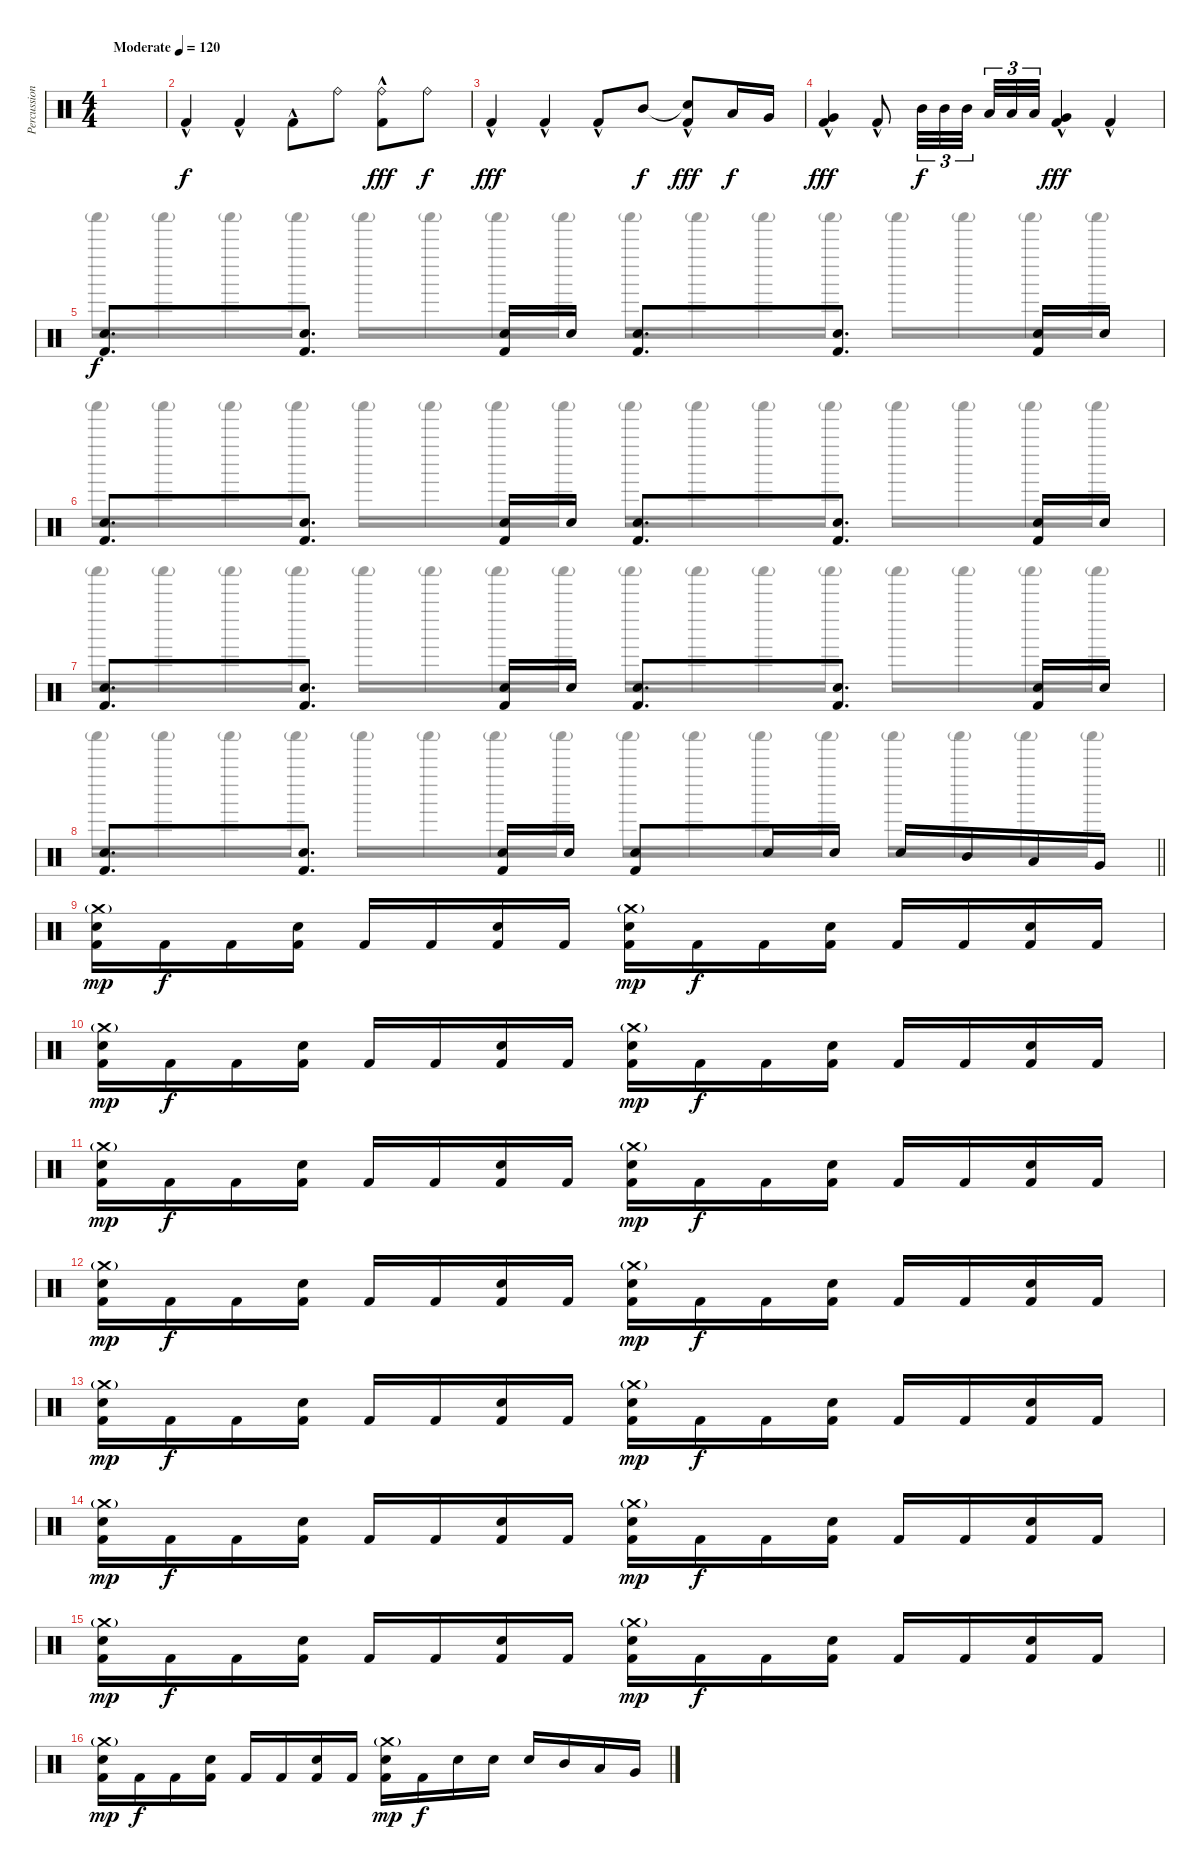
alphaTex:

\track ("Percussion" "Percussion") {instrument percussion}
\staff {score}
\articulation defaults
\voice
\ts (4 4)
\section ("" "")
\tempo (120 "Moderate")
\clef neutral
\ks c
|
"Kick (hit) 2"{hac}.4 "Kick (hit) 2"{hac}.4 "Kick (hit) 2"{hac}.8 "Ride (bell)".8{dy f} ("Ride (bell)" "Kick (hit) 2"{hac}).8{dy fff} "Ride (bell)".8{dy f} |
"Kick (hit) 2"{hac}.4{dy fff} "Kick (hit) 2"{hac}.4 "Kick (hit) 2"{hac}.8 "Mid Tom (hit)".8{dy f} ("Snare (hit)"{t} "Kick (hit) 2"{hac}).8{dy fff} "Low Tom (hit)".16{dy f} "Very Low Tom (hit)".16 |
("Very Low Tom (hit)"{hac} "Kick (hit) 2"{hac}).4{dy fff} "Kick (hit) 2"{hac}.8 "Mid Tom (hit)".32{tu (3 2) dy f} "Mid Tom (hit)".32{tu (3 2)} "Mid Tom (hit)".32{tu (3 2) beam splitsecondary} "Low Tom (hit)".32{tu (3 2)} "Low Tom (hit)".32{tu (3 2)} "Low Tom (hit)".32{tu (3 2)} ("Very Low Tom (hit)" "Kick (hit) 2"{hac}).4{dy fff} "Kick (hit) 2"{hac}.4 |
("Snare (hit) 2" "Kick (hit) 2").8{d dy f} ("Snare (hit) 2" "Kick (hit) 2").8{d} ("Snare (hit) 2" "Kick (hit) 2").16 "Snare (hit) 2".16 ("Snare (hit) 2" "Kick (hit) 2").8{d} ("Snare (hit) 2" "Kick (hit) 2").8{d} ("Snare (hit) 2" "Kick (hit) 2").16 "Snare (hit) 2".16 |
("Snare (hit) 2" "Kick (hit) 2").8{d} ("Snare (hit) 2" "Kick (hit) 2").8{d} ("Snare (hit) 2" "Kick (hit) 2").16 "Snare (hit) 2".16 ("Snare (hit) 2" "Kick (hit) 2").8{d} ("Snare (hit) 2" "Kick (hit) 2").8{d} ("Snare (hit) 2" "Kick (hit) 2").16 "Snare (hit) 2".16 |
("Snare (hit) 2" "Kick (hit) 2").8{d} ("Snare (hit) 2" "Kick (hit) 2").8{d} ("Snare (hit) 2" "Kick (hit) 2").16 "Snare (hit) 2".16 ("Snare (hit) 2" "Kick (hit) 2").8{d} ("Snare (hit) 2" "Kick (hit) 2").8{d} ("Snare (hit) 2" "Kick (hit) 2").16 "Snare (hit) 2".16 |
\barLineRight lightlight
("Snare (hit) 2" "Kick (hit) 2").8{d} ("Snare (hit) 2" "Kick (hit) 2").8{d} ("Snare (hit) 2" "Kick (hit) 2").16 "Snare (hit) 2".16 ("Snare (hit) 2" "Kick (hit) 2").8 "Snare (hit) 2".16 "Snare (hit) 2".16 "Snare (hit) 2".16 "Mid Tom (hit)".16 "Low Tom (hit)".16 "Very Low Tom (hit)".16 |
\section ("" "")
("Crash medium (hit)"{g} "Snare (hit) 2" "Kick (hit) 2").16{dy mp} "Kick (hit) 2".16{dy f} "Kick (hit) 2".16 ("Snare (hit) 2" "Kick (hit) 2").16 "Kick (hit) 2".16 "Kick (hit) 2".16 ("Snare (hit) 2" "Kick (hit) 2").16 "Kick (hit) 2".16 ("Crash medium (hit)"{g} "Snare (hit) 2" "Kick (hit) 2").16{dy mp} "Kick (hit) 2".16{dy f} "Kick (hit) 2".16 ("Snare (hit) 2" "Kick (hit) 2").16 "Kick (hit) 2".16 "Kick (hit) 2".16 ("Snare (hit) 2" "Kick (hit) 2").16 "Kick (hit) 2".16 |
("Crash medium (hit)"{g} "Snare (hit) 2" "Kick (hit) 2").16{dy mp} "Kick (hit) 2".16{dy f} "Kick (hit) 2".16 ("Snare (hit) 2" "Kick (hit) 2").16 "Kick (hit) 2".16 "Kick (hit) 2".16 ("Snare (hit) 2" "Kick (hit) 2").16 "Kick (hit) 2".16 ("Crash medium (hit)"{g} "Snare (hit) 2" "Kick (hit) 2").16{dy mp} "Kick (hit) 2".16{dy f} "Kick (hit) 2".16 ("Snare (hit) 2" "Kick (hit) 2").16 "Kick (hit) 2".16 "Kick (hit) 2".16 ("Snare (hit) 2" "Kick (hit) 2").16 "Kick (hit) 2".16 |
("Crash medium (hit)"{g} "Snare (hit) 2" "Kick (hit) 2").16{dy mp} "Kick (hit) 2".16{dy f} "Kick (hit) 2".16 ("Snare (hit) 2" "Kick (hit) 2").16 "Kick (hit) 2".16 "Kick (hit) 2".16 ("Snare (hit) 2" "Kick (hit) 2").16 "Kick (hit) 2".16 ("Crash medium (hit)"{g} "Snare (hit) 2" "Kick (hit) 2").16{dy mp} "Kick (hit) 2".16{dy f} "Kick (hit) 2".16 ("Snare (hit) 2" "Kick (hit) 2").16 "Kick (hit) 2".16 "Kick (hit) 2".16 ("Snare (hit) 2" "Kick (hit) 2").16 "Kick (hit) 2".16 |
("Crash medium (hit)"{g} "Snare (hit) 2" "Kick (hit) 2").16{dy mp} "Kick (hit) 2".16{dy f} "Kick (hit) 2".16 ("Snare (hit) 2" "Kick (hit) 2").16 "Kick (hit) 2".16 "Kick (hit) 2".16 ("Snare (hit) 2" "Kick (hit) 2").16 "Kick (hit) 2".16 ("Crash medium (hit)"{g} "Snare (hit) 2" "Kick (hit) 2").16{dy mp} "Kick (hit) 2".16{dy f} "Kick (hit) 2".16 ("Snare (hit) 2" "Kick (hit) 2").16 "Kick (hit) 2".16 "Kick (hit) 2".16 ("Snare (hit) 2" "Kick (hit) 2").16 "Kick (hit) 2".16 |
("Crash medium (hit)"{g} "Snare (hit) 2" "Kick (hit) 2").16{dy mp} "Kick (hit) 2".16{dy f} "Kick (hit) 2".16 ("Snare (hit) 2" "Kick (hit) 2").16 "Kick (hit) 2".16 "Kick (hit) 2".16 ("Snare (hit) 2" "Kick (hit) 2").16 "Kick (hit) 2".16 ("Crash medium (hit)"{g} "Snare (hit) 2" "Kick (hit) 2").16{dy mp} "Kick (hit) 2".16{dy f} "Kick (hit) 2".16 ("Snare (hit) 2" "Kick (hit) 2").16 "Kick (hit) 2".16 "Kick (hit) 2".16 ("Snare (hit) 2" "Kick (hit) 2").16 "Kick (hit) 2".16 |
("Crash medium (hit)"{g} "Snare (hit) 2" "Kick (hit) 2").16{dy mp} "Kick (hit) 2".16{dy f} "Kick (hit) 2".16 ("Snare (hit) 2" "Kick (hit) 2").16 "Kick (hit) 2".16 "Kick (hit) 2".16 ("Snare (hit) 2" "Kick (hit) 2").16 "Kick (hit) 2".16 ("Crash medium (hit)"{g} "Snare (hit) 2" "Kick (hit) 2").16{dy mp} "Kick (hit) 2".16{dy f} "Kick (hit) 2".16 ("Snare (hit) 2" "Kick (hit) 2").16 "Kick (hit) 2".16 "Kick (hit) 2".16 ("Snare (hit) 2" "Kick (hit) 2").16 "Kick (hit) 2".16 |
("Crash medium (hit)"{g} "Snare (hit) 2" "Kick (hit) 2").16{dy mp} "Kick (hit) 2".16{dy f} "Kick (hit) 2".16 ("Snare (hit) 2" "Kick (hit) 2").16 "Kick (hit) 2".16 "Kick (hit) 2".16 ("Snare (hit) 2" "Kick (hit) 2").16 "Kick (hit) 2".16 ("Crash medium (hit)"{g} "Snare (hit) 2" "Kick (hit) 2").16{dy mp} "Kick (hit) 2".16{dy f} "Kick (hit) 2".16 ("Snare (hit) 2" "Kick (hit) 2").16 "Kick (hit) 2".16 "Kick (hit) 2".16 ("Snare (hit) 2" "Kick (hit) 2").16 "Kick (hit) 2".16 |
("Crash medium (hit)"{g} "Snare (hit) 2" "Kick (hit) 2").16{dy mp} "Kick (hit) 2".16{dy f} "Kick (hit) 2".16 ("Snare (hit) 2" "Kick (hit) 2").16 "Kick (hit) 2".16 "Kick (hit) 2".16 ("Snare (hit) 2" "Kick (hit) 2").16 "Kick (hit) 2".16 ("Crash medium (hit)"{g} "Snare (hit) 2" "Kick (hit) 2").16{dy mp} "Kick (hit) 2".16{dy f} "Snare (hit) 2".16 "Snare (hit) 2".16 "Snare (hit) 2".16 "Mid Tom (hit)".16 "Low Tom (hit)".16 "Very Low Tom (hit)".16
\voice
\clef neutral
\ottava regular
\simile none
\ks c
|
|
|
|
"Shaker (hit)"{g}.16 "Shaker (hit)"{g}.16 "Shaker (hit)"{g}.16 "Shaker (hit)"{g}.16 "Shaker (hit)"{g}.16 "Shaker (hit)"{g}.16 "Shaker (hit)"{g}.16 "Shaker (hit)"{g}.16 "Shaker (hit)"{g}.16 "Shaker (hit)"{g}.16 "Shaker (hit)"{g}.16 "Shaker (hit)"{g}.16 "Shaker (hit)"{g}.16 "Shaker (hit)"{g}.16 "Shaker (hit)"{g}.16 "Shaker (hit)"{g}.16 |
"Shaker (hit)"{g}.16 "Shaker (hit)"{g}.16 "Shaker (hit)"{g}.16 "Shaker (hit)"{g}.16 "Shaker (hit)"{g}.16 "Shaker (hit)"{g}.16 "Shaker (hit)"{g}.16 "Shaker (hit)"{g}.16 "Shaker (hit)"{g}.16 "Shaker (hit)"{g}.16 "Shaker (hit)"{g}.16 "Shaker (hit)"{g}.16 "Shaker (hit)"{g}.16 "Shaker (hit)"{g}.16 "Shaker (hit)"{g}.16 "Shaker (hit)"{g}.16 |
"Shaker (hit)"{g}.16 "Shaker (hit)"{g}.16 "Shaker (hit)"{g}.16 "Shaker (hit)"{g}.16 "Shaker (hit)"{g}.16 "Shaker (hit)"{g}.16 "Shaker (hit)"{g}.16 "Shaker (hit)"{g}.16 "Shaker (hit)"{g}.16 "Shaker (hit)"{g}.16 "Shaker (hit)"{g}.16 "Shaker (hit)"{g}.16 "Shaker (hit)"{g}.16 "Shaker (hit)"{g}.16 "Shaker (hit)"{g}.16 "Shaker (hit)"{g}.16 |
\barLineRight lightlight "Shaker (hit)"{g}.16 "Shaker (hit)"{g}.16 "Shaker (hit)"{g}.16 "Shaker (hit)"{g}.16 "Shaker (hit)"{g}.16 "Shaker (hit)"{g}.16 "Shaker (hit)"{g}.16 "Shaker (hit)"{g}.16 "Shaker (hit)"{g}.16 "Shaker (hit)"{g}.16 "Shaker (hit)"{g}.16 "Shaker (hit)"{g}.16 "Shaker (hit)"{g}.16 "Shaker (hit)"{g}.16 "Shaker (hit)"{g}.16 "Shaker (hit)"{g}.16
|
|
|
|
|
|
|
|
